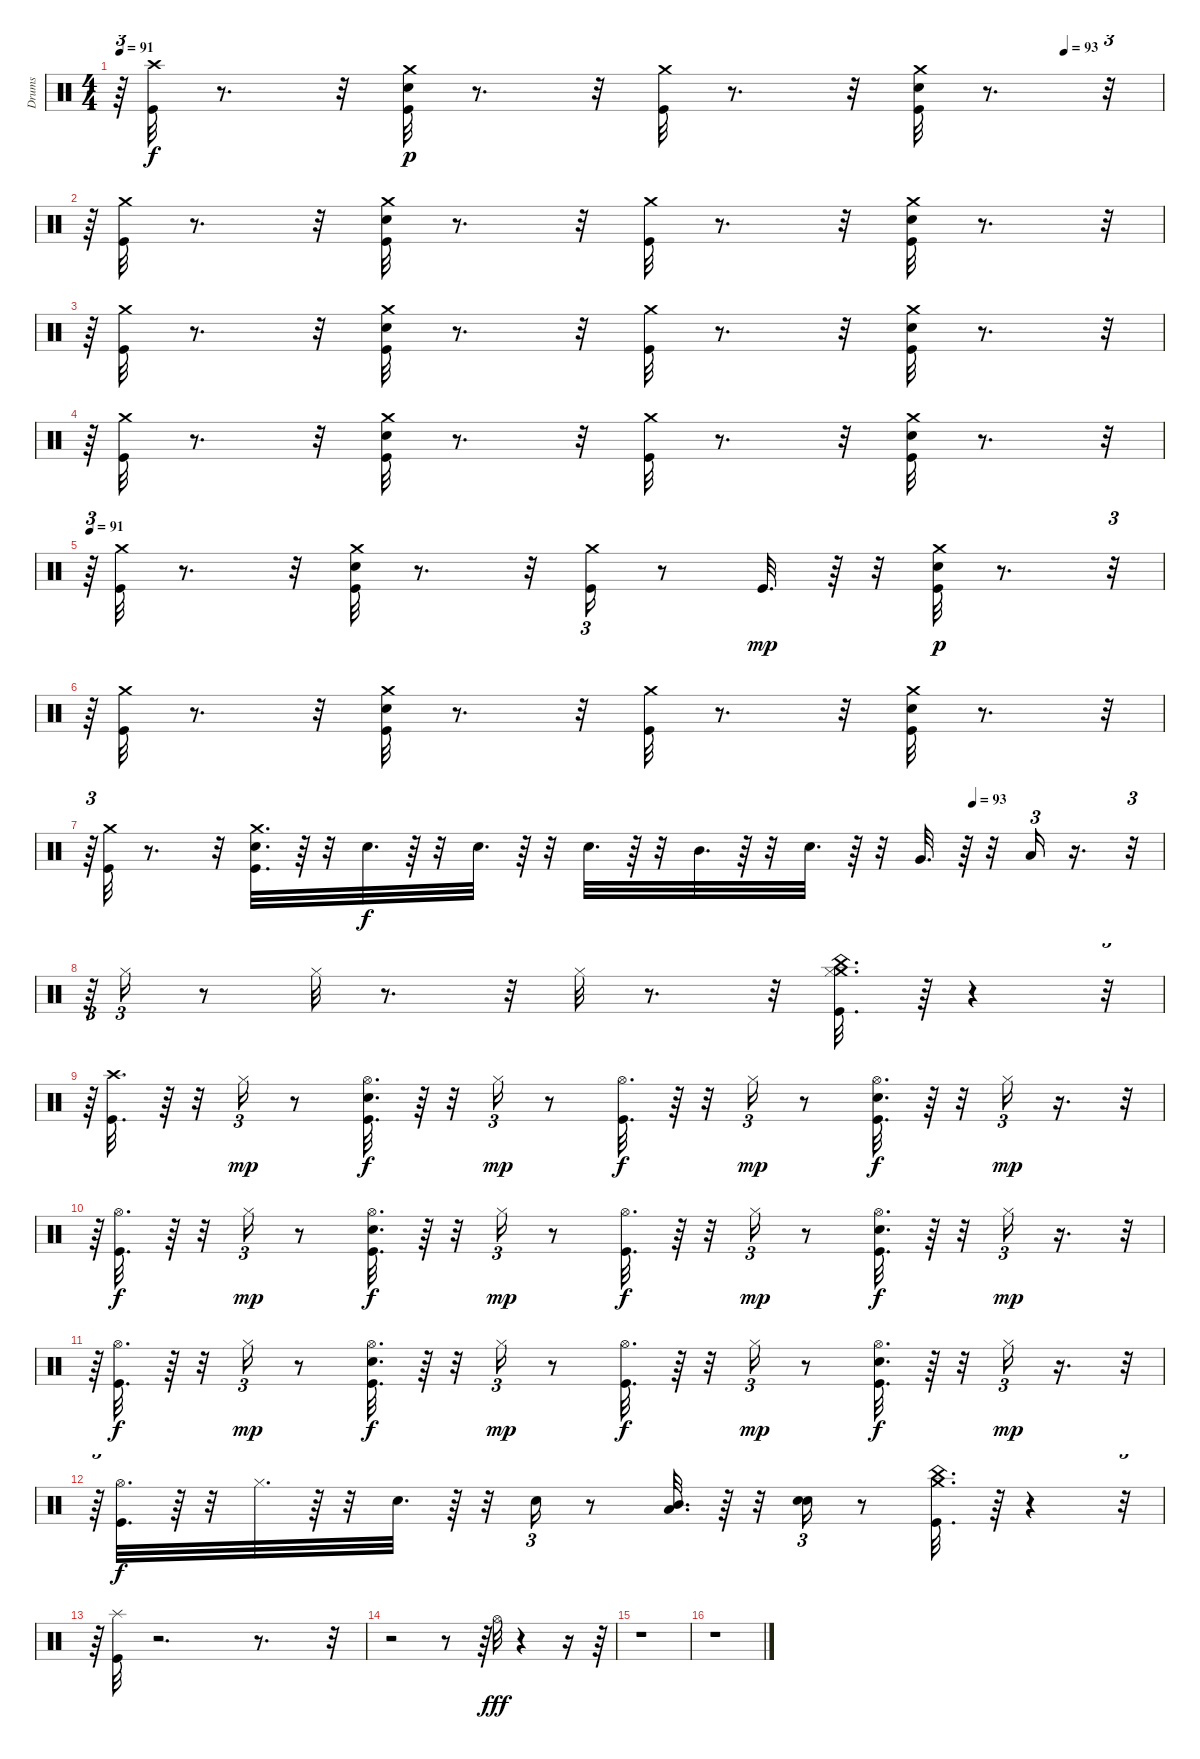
\track ("Drums" "Drums") {instrument percussion}
\staff {score}
\articulation defaults
\ts (4 4)
\tempo 91
\tempo (93 0.90625)
\clef neutral
\ks c
r.64{tu (3 2) dy f} ("Kick (hit)" "Crash high (hit)").32 r.8{d} r.32 ("Snare (hit) 2" "Kick (hit)" "Crash medium (hit)").32{dy p} r.8{d} r.32 ("Kick (hit)" "Crash medium (hit)").32 r.8{d} r.32 ("Snare (hit) 2" "Kick (hit)" "Crash medium (hit)").32 r.8{d} r.32{tu (3 2)} |
r.64{tu (3 2)} ("Crash medium (hit)" "Kick (hit)").32 r.8{d} r.32 ("Snare (hit) 2" "Kick (hit)" "Crash medium (hit)").32 r.8{d} r.32 ("Kick (hit)" "Crash medium (hit)").32 r.8{d} r.32 ("Snare (hit) 2" "Kick (hit)" "Crash medium (hit)").32 r.8{d} r.32{tu (3 2)} |
r.64{tu (3 2)} ("Crash medium (hit)" "Kick (hit)").32 r.8{d} r.32 ("Snare (hit) 2" "Kick (hit)" "Crash medium (hit)").32 r.8{d} r.32 ("Kick (hit)" "Crash medium (hit)").32 r.8{d} r.32 ("Snare (hit) 2" "Kick (hit)" "Crash medium (hit)").32 r.8{d} r.32{tu (3 2)} |
r.64{tu (3 2)} ("Crash medium (hit)" "Kick (hit)").32 r.8{d} r.32 ("Snare (hit) 2" "Kick (hit)" "Crash medium (hit)").32 r.8{d} r.32 ("Kick (hit)" "Crash medium (hit)").32 r.8{d} r.32 ("Snare (hit) 2" "Kick (hit)" "Crash medium (hit)").32 r.8{d} r.32{tu (3 2)} |
\tempo 91
r.64{tu (3 2)} ("Crash medium (hit)" "Kick (hit)").32 r.8{d} r.32 ("Snare (hit) 2" "Kick (hit)" "Crash medium (hit)").32 r.8{d} r.32 ("Kick (hit)" "Crash medium (hit)").16{tu (3 2)} r.8 "Kick (hit)".32{d dy mp} r.64 r.32 ("Snare (hit) 2" "Kick (hit)" "Crash medium (hit)").32{dy p} r.8{d} r.32{tu (3 2)} |
r.64{tu (3 2)} ("Crash medium (hit)" "Kick (hit)").32 r.8{d} r.32 ("Snare (hit) 2" "Kick (hit)" "Crash medium (hit)").32 r.8{d} r.32 ("Kick (hit)" "Crash medium (hit)").32 r.8{d} r.32 ("Snare (hit) 2" "Kick (hit)" "Crash medium (hit)").32 r.8{d} r.32{tu (3 2)} |
\tempo (93 0.8229166666666666)
r.64{tu (3 2)} ("Kick (hit)" "Crash medium (hit)").32 r.8{d} r.32 ("Kick (hit)" "Snare (hit) 2" "Crash medium (hit)").32{d} r.64 r.32 "Electric Snare (hit)".32{d dy f} r.64 r.32 "Electric Snare (hit)".32{d} r.64 r.32 "Electric Snare (hit)".32{d} r.64 r.32 "Mid Tom (hit)".32{d} r.64 r.32 "Electric Snare (hit)".32{d} r.64 r.32 "Very Low Tom (hit)".32{d} r.64 r.32 "Low Floor Tom (hit)".16{tu (3 2)} r.16{d} r.32{tu (3 2)} |
r.64{tu (3 2)} "Hi-Hat (closed)".16{tu (3 2)} r.8 "Hi-Hat (closed)".32 r.8{d} r.32 "Hi-Hat (closed)".32 r.8{d} r.32 ("Crash medium (hit)" "Kick (hit)" "China (hit)" "Hi-Hat (closed)").32{d} r.64 r.4 r.32{tu (3 2)} |
r.64{tu (3 2)} ("Kick (hit)" "Crash high (hit)").32{d} r.64 r.32 "Hi-Hat (closed)".16{tu (3 2) dy mp} r.8 ("Kick (hit)" "Hi-Hat (open)" "Snare (hit) 2").32{d dy f} r.64 r.32 "Hi-Hat (closed)".16{tu (3 2) dy mp} r.8 ("Hi-Hat (open)" "Kick (hit)").32{d dy f} r.64 r.32 "Hi-Hat (closed)".16{tu (3 2) dy mp} r.8 ("Kick (hit)" "Snare (hit) 2" "Hi-Hat (open)").32{d dy f} r.64 r.32 "Hi-Hat (closed)".16{tu (3 2) dy mp} r.16{d} r.32{tu (3 2)} |
r.64{tu (3 2)} ("Kick (hit)" "Hi-Hat (open)").32{d dy f} r.64 r.32 "Hi-Hat (closed)".16{tu (3 2) dy mp} r.8 ("Kick (hit)" "Hi-Hat (open)" "Snare (hit) 2").32{d dy f} r.64 r.32 "Hi-Hat (closed)".16{tu (3 2) dy mp} r.8 ("Hi-Hat (open)" "Kick (hit)").32{d dy f} r.64 r.32 "Hi-Hat (closed)".16{tu (3 2) dy mp} r.8 ("Kick (hit)" "Snare (hit) 2" "Hi-Hat (open)").32{d dy f} r.64 r.32 "Hi-Hat (closed)".16{tu (3 2) dy mp} r.16{d} r.32{tu (3 2)} |
r.64{tu (3 2)} ("Kick (hit)" "Hi-Hat (open)").32{d dy f} r.64 r.32 "Hi-Hat (closed)".16{tu (3 2) dy mp} r.8 ("Kick (hit)" "Hi-Hat (open)" "Snare (hit) 2").32{d dy f} r.64 r.32 "Hi-Hat (closed)".16{tu (3 2) dy mp} r.8 ("Hi-Hat (open)" "Kick (hit)").32{d dy f} r.64 r.32 "Hi-Hat (closed)".16{tu (3 2) dy mp} r.8 ("Kick (hit)" "Snare (hit) 2" "Hi-Hat (open)").32{d dy f} r.64 r.32 "Hi-Hat (closed)".16{tu (3 2) dy mp} r.16{d} r.32{tu (3 2)} |
r.64{tu (3 2)} ("Hi-Hat (open)" "Kick (hit)").32{d dy f} r.64 r.32 "Hi-Hat (closed)".32{d} r.64 r.32 "Electric Snare (hit)".32{d} r.64 r.32 "Electric Snare (hit)".16{tu (3 2)} r.8 ("Low Tom (hit)" "Mid Tom (hit)").32{d} r.64 r.32 ("Snare (hit) 2" "Electric Snare (hit)").16{tu (3 2)} r.8 ("Crash medium (hit)" "China (hit)" "Kick (hit)").32{d} r.64 r.4 r.32{tu (3 2)} |
r.64{tu (3 2)} ("Splash (hit)" "Kick (hit)").32 r.2{d} r.8{d} r.32{tu (3 2)} |
r.2 r.8 r.64{tu (3 2)} "Hi-Hat (open)".32{dy fff} r.4 r.16 r.64 |
r.1 |
r.1
